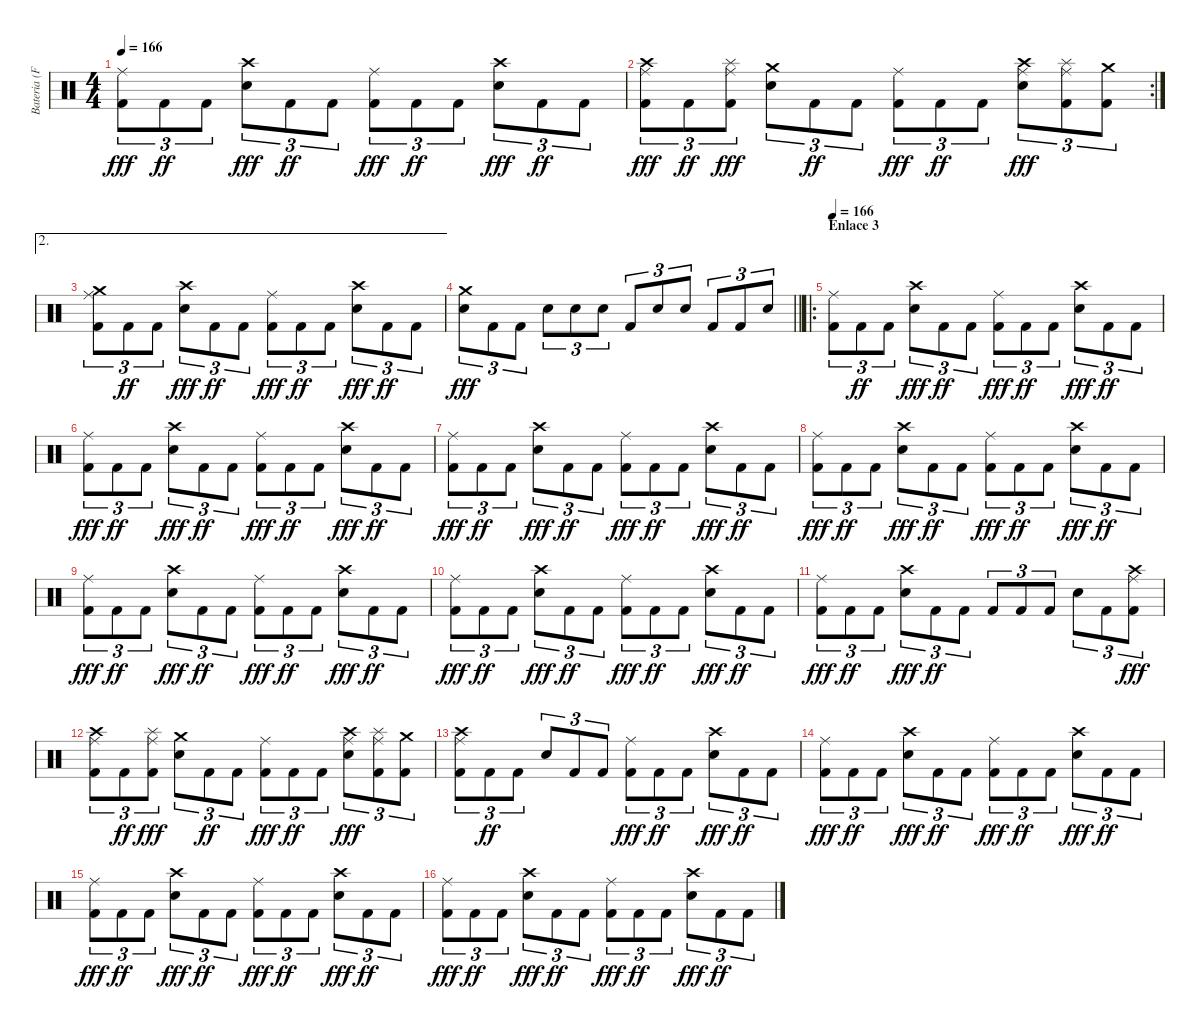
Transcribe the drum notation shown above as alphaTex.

\track ("Bateria (Fernando Scarcella)" "Bateria (F") {instrument percussion}
\staff {score}
\articulation defaults
\ts (4 4)
\tempo 166
\clef neutral
\ks c
("Kick (hit) 2" "Ride (middle)").8{tu (3 2) dy fff} "Kick (hit) 2".8{tu (3 2) dy ff} "Kick (hit) 2".8{tu (3 2)} ("Electric Snare (hit)" "Crash high (hit)").8{tu (3 2) dy fff} "Kick (hit) 2".8{tu (3 2) dy ff} "Kick (hit) 2".8{tu (3 2)} ("Kick (hit) 2" "Ride (middle)").8{tu (3 2) dy fff} "Kick (hit) 2".8{tu (3 2) dy ff} "Kick (hit) 2".8{tu (3 2)} ("Electric Snare (hit)" "Crash high (hit)").8{tu (3 2) dy fff} "Kick (hit) 2".8{tu (3 2) dy ff} "Kick (hit) 2".8{tu (3 2)} |
\rc 2
("Kick (hit) 2" "Ride (middle)" "Crash high (hit)").8{tu (3 2) dy fff} "Kick (hit) 2".8{tu (3 2) dy ff} ("Kick (hit) 2" "Ride (middle)" "Splash (hit)").8{tu (3 2) dy fff} ("Electric Snare (hit)" "Crash medium (hit)").8{tu (3 2)} "Kick (hit) 2".8{tu (3 2) dy ff} "Kick (hit) 2".8{tu (3 2)} ("Kick (hit) 2" "Ride (middle)").8{tu (3 2) dy fff} "Kick (hit) 2".8{tu (3 2) dy ff} "Kick (hit) 2".8{tu (3 2)} ("Electric Snare (hit)" "Ride (middle)" "Crash high (hit)").8{tu (3 2) dy fff} ("Kick (hit) 2" "Ride (middle)" "Splash (hit)").8{tu (3 2)} ("Kick (hit) 2" "Crash medium (hit)").8{tu (3 2)} |
\ae 2
("Kick (hit) 2" "Ride (middle)" "Crash medium (hit)").8{tu (3 2)} "Kick (hit) 2".8{tu (3 2) dy ff} "Kick (hit) 2".8{tu (3 2)} ("Electric Snare (hit)" "Crash high (hit)").8{tu (3 2) dy fff} "Kick (hit) 2".8{tu (3 2) dy ff} "Kick (hit) 2".8{tu (3 2)} ("Kick (hit) 2" "Ride (middle)").8{tu (3 2) dy fff} "Kick (hit) 2".8{tu (3 2) dy ff} "Kick (hit) 2".8{tu (3 2)} ("Electric Snare (hit)" "Crash high (hit)").8{tu (3 2) dy fff} "Kick (hit) 2".8{tu (3 2) dy ff} "Kick (hit) 2".8{tu (3 2)} |
\barLineRight lightlight
("Crash medium (hit)" "Snare (hit) 2").8{tu (3 2) dy fff} "Kick (hit) 2".8{tu (3 2)} "Kick (hit) 2".8{tu (3 2)} "Snare (hit) 2".8{tu (3 2)} "Snare (hit) 2".8{tu (3 2)} "Snare (hit) 2".8{tu (3 2)} "Kick (hit) 2".8{tu (3 2)} "Electric Snare (hit)".8{tu (3 2)} "Snare (hit) 2".8{tu (3 2)} "Kick (hit) 2".8{tu (3 2)} "Kick (hit) 2".8{tu (3 2)} "Snare (hit) 2".8{tu (3 2)} |
\ro
\section ("" "Enlace 3")
\tempo 166
("Kick (hit) 2" "Ride (middle)").8{tu (3 2)} "Kick (hit) 2".8{tu (3 2) dy ff} "Kick (hit) 2".8{tu (3 2)} ("Electric Snare (hit)" "Crash high (hit)").8{tu (3 2) dy fff} "Kick (hit) 2".8{tu (3 2) dy ff} "Kick (hit) 2".8{tu (3 2)} ("Kick (hit) 2" "Ride (middle)").8{tu (3 2) dy fff} "Kick (hit) 2".8{tu (3 2) dy ff} "Kick (hit) 2".8{tu (3 2)} ("Electric Snare (hit)" "Crash high (hit)").8{tu (3 2) dy fff} "Kick (hit) 2".8{tu (3 2) dy ff} "Kick (hit) 2".8{tu (3 2)} |
("Kick (hit) 2" "Ride (middle)").8{tu (3 2) dy fff} "Kick (hit) 2".8{tu (3 2) dy ff} "Kick (hit) 2".8{tu (3 2)} ("Electric Snare (hit)" "Crash high (hit)").8{tu (3 2) dy fff} "Kick (hit) 2".8{tu (3 2) dy ff} "Kick (hit) 2".8{tu (3 2)} ("Kick (hit) 2" "Ride (middle)").8{tu (3 2) dy fff} "Kick (hit) 2".8{tu (3 2) dy ff} "Kick (hit) 2".8{tu (3 2)} ("Electric Snare (hit)" "Crash high (hit)").8{tu (3 2) dy fff} "Kick (hit) 2".8{tu (3 2) dy ff} "Kick (hit) 2".8{tu (3 2)} |
("Kick (hit) 2" "Ride (middle)").8{tu (3 2) dy fff} "Kick (hit) 2".8{tu (3 2) dy ff} "Kick (hit) 2".8{tu (3 2)} ("Electric Snare (hit)" "Crash high (hit)").8{tu (3 2) dy fff} "Kick (hit) 2".8{tu (3 2) dy ff} "Kick (hit) 2".8{tu (3 2)} ("Kick (hit) 2" "Ride (middle)").8{tu (3 2) dy fff} "Kick (hit) 2".8{tu (3 2) dy ff} "Kick (hit) 2".8{tu (3 2)} ("Electric Snare (hit)" "Crash high (hit)").8{tu (3 2) dy fff} "Kick (hit) 2".8{tu (3 2) dy ff} "Kick (hit) 2".8{tu (3 2)} |
("Kick (hit) 2" "Ride (middle)").8{tu (3 2) dy fff} "Kick (hit) 2".8{tu (3 2) dy ff} "Kick (hit) 2".8{tu (3 2)} ("Electric Snare (hit)" "Crash high (hit)").8{tu (3 2) dy fff} "Kick (hit) 2".8{tu (3 2) dy ff} "Kick (hit) 2".8{tu (3 2)} ("Kick (hit) 2" "Ride (middle)").8{tu (3 2) dy fff} "Kick (hit) 2".8{tu (3 2) dy ff} "Kick (hit) 2".8{tu (3 2)} ("Electric Snare (hit)" "Crash high (hit)").8{tu (3 2) dy fff} "Kick (hit) 2".8{tu (3 2) dy ff} "Kick (hit) 2".8{tu (3 2)} |
("Kick (hit) 2" "Ride (middle)").8{tu (3 2) dy fff} "Kick (hit) 2".8{tu (3 2) dy ff} "Kick (hit) 2".8{tu (3 2)} ("Electric Snare (hit)" "Crash high (hit)").8{tu (3 2) dy fff} "Kick (hit) 2".8{tu (3 2) dy ff} "Kick (hit) 2".8{tu (3 2)} ("Kick (hit) 2" "Ride (middle)").8{tu (3 2) dy fff} "Kick (hit) 2".8{tu (3 2) dy ff} "Kick (hit) 2".8{tu (3 2)} ("Electric Snare (hit)" "Crash high (hit)").8{tu (3 2) dy fff} "Kick (hit) 2".8{tu (3 2) dy ff} "Kick (hit) 2".8{tu (3 2)} |
("Kick (hit) 2" "Ride (middle)").8{tu (3 2) dy fff} "Kick (hit) 2".8{tu (3 2) dy ff} "Kick (hit) 2".8{tu (3 2)} ("Electric Snare (hit)" "Crash high (hit)").8{tu (3 2) dy fff} "Kick (hit) 2".8{tu (3 2) dy ff} "Kick (hit) 2".8{tu (3 2)} ("Kick (hit) 2" "Ride (middle)").8{tu (3 2) dy fff} "Kick (hit) 2".8{tu (3 2) dy ff} "Kick (hit) 2".8{tu (3 2)} ("Electric Snare (hit)" "Crash high (hit)").8{tu (3 2) dy fff} "Kick (hit) 2".8{tu (3 2) dy ff} "Kick (hit) 2".8{tu (3 2)} |
("Kick (hit) 2" "Ride (middle)").8{tu (3 2) dy fff} "Kick (hit) 2".8{tu (3 2) dy ff} "Kick (hit) 2".8{tu (3 2)} ("Electric Snare (hit)" "Crash high (hit)").8{tu (3 2) dy fff} "Kick (hit) 2".8{tu (3 2) dy ff} "Kick (hit) 2".8{tu (3 2)} "Kick (hit) 2".8{tu (3 2)} "Kick (hit) 2".8{tu (3 2)} "Kick (hit) 2".8{tu (3 2)} "Electric Snare (hit)".8{tu (3 2)} "Kick (hit) 2".8{tu (3 2)} ("Kick (hit) 2" "Ride (middle)" "Crash high (hit)").8{tu (3 2) dy fff} |
("Kick (hit) 2" "Ride (middle)" "Crash high (hit)").8{tu (3 2)} "Kick (hit) 2".8{tu (3 2) dy ff} ("Kick (hit) 2" "Ride (middle)" "Splash (hit)").8{tu (3 2) dy fff} ("Electric Snare (hit)" "Crash medium (hit)").8{tu (3 2)} "Kick (hit) 2".8{tu (3 2) dy ff} "Kick (hit) 2".8{tu (3 2)} ("Kick (hit) 2" "Ride (middle)").8{tu (3 2) dy fff} "Kick (hit) 2".8{tu (3 2) dy ff} "Kick (hit) 2".8{tu (3 2)} ("Electric Snare (hit)" "Ride (middle)" "Crash high (hit)").8{tu (3 2) dy fff} ("Kick (hit) 2" "Ride (middle)" "Splash (hit)").8{tu (3 2)} ("Kick (hit) 2" "Crash medium (hit)").8{tu (3 2)} |
("Kick (hit) 2" "Ride (middle)" "Crash high (hit)").8{tu (3 2)} "Kick (hit) 2".8{tu (3 2) dy ff} "Kick (hit) 2".8{tu (3 2)} "Electric Snare (hit)".8{tu (3 2)} "Kick (hit) 2".8{tu (3 2)} "Kick (hit) 2".8{tu (3 2)} ("Kick (hit) 2" "Ride (middle)").8{tu (3 2) dy fff} "Kick (hit) 2".8{tu (3 2) dy ff} "Kick (hit) 2".8{tu (3 2)} ("Electric Snare (hit)" "Crash high (hit)").8{tu (3 2) dy fff} "Kick (hit) 2".8{tu (3 2) dy ff} "Kick (hit) 2".8{tu (3 2)} |
("Kick (hit) 2" "Ride (middle)").8{tu (3 2) dy fff} "Kick (hit) 2".8{tu (3 2) dy ff} "Kick (hit) 2".8{tu (3 2)} ("Electric Snare (hit)" "Crash high (hit)").8{tu (3 2) dy fff} "Kick (hit) 2".8{tu (3 2) dy ff} "Kick (hit) 2".8{tu (3 2)} ("Kick (hit) 2" "Ride (middle)").8{tu (3 2) dy fff} "Kick (hit) 2".8{tu (3 2) dy ff} "Kick (hit) 2".8{tu (3 2)} ("Electric Snare (hit)" "Crash high (hit)").8{tu (3 2) dy fff} "Kick (hit) 2".8{tu (3 2) dy ff} "Kick (hit) 2".8{tu (3 2)} |
("Kick (hit) 2" "Ride (middle)").8{tu (3 2) dy fff} "Kick (hit) 2".8{tu (3 2) dy ff} "Kick (hit) 2".8{tu (3 2)} ("Electric Snare (hit)" "Crash high (hit)").8{tu (3 2) dy fff} "Kick (hit) 2".8{tu (3 2) dy ff} "Kick (hit) 2".8{tu (3 2)} ("Kick (hit) 2" "Ride (middle)").8{tu (3 2) dy fff} "Kick (hit) 2".8{tu (3 2) dy ff} "Kick (hit) 2".8{tu (3 2)} ("Electric Snare (hit)" "Crash high (hit)").8{tu (3 2) dy fff} "Kick (hit) 2".8{tu (3 2) dy ff} "Kick (hit) 2".8{tu (3 2)} |
("Kick (hit) 2" "Ride (middle)").8{tu (3 2) dy fff} "Kick (hit) 2".8{tu (3 2) dy ff} "Kick (hit) 2".8{tu (3 2)} ("Electric Snare (hit)" "Crash high (hit)").8{tu (3 2) dy fff} "Kick (hit) 2".8{tu (3 2) dy ff} "Kick (hit) 2".8{tu (3 2)} ("Kick (hit) 2" "Ride (middle)").8{tu (3 2) dy fff} "Kick (hit) 2".8{tu (3 2) dy ff} "Kick (hit) 2".8{tu (3 2)} ("Electric Snare (hit)" "Crash high (hit)").8{tu (3 2) dy fff} "Kick (hit) 2".8{tu (3 2) dy ff} "Kick (hit) 2".8{tu (3 2)}
